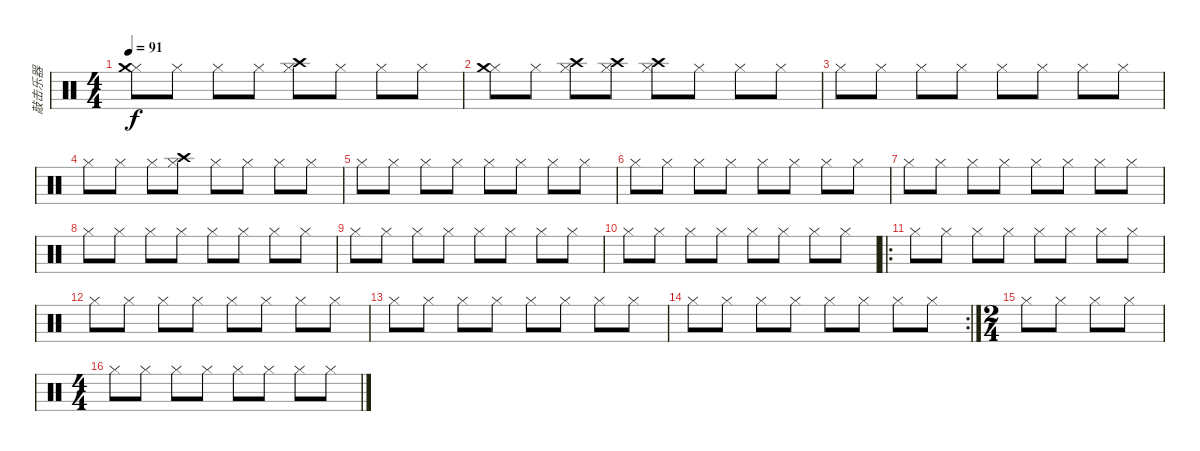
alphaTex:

\track ("敲击乐器" "敲击乐器") {instrument percussion}
\staff {score}
\articulation defaults
\ts (4 4)
\tempo 91
\clef neutral
\ks c
("Hi-Hat (closed)" "Crash medium (hit)").8{dy f} "Hi-Hat (closed)".8 "Hi-Hat (closed)".8 "Hi-Hat (closed)".8 ("Hi-Hat (closed)" "Crash high (hit)").8 "Hi-Hat (closed)".8 "Hi-Hat (closed)".8 "Hi-Hat (closed)".8 |
("Hi-Hat (closed)" "Crash medium (hit)").8 "Hi-Hat (closed)".8 ("Hi-Hat (closed)" "Crash high (hit)").8 ("Hi-Hat (closed)" "Crash high (hit)").8 ("Hi-Hat (closed)" "Crash high (hit)").8 "Hi-Hat (closed)".8 "Hi-Hat (closed)".8 "Hi-Hat (closed)".8 |
"Hi-Hat (closed)".8 "Hi-Hat (closed)".8 "Hi-Hat (closed)".8 "Hi-Hat (closed)".8 "Hi-Hat (closed)".8 "Hi-Hat (closed)".8 "Hi-Hat (closed)".8 "Hi-Hat (closed)".8 |
"Hi-Hat (closed)".8 "Hi-Hat (closed)".8 "Hi-Hat (closed)".8 ("Hi-Hat (closed)" "Crash high (hit)").8 "Hi-Hat (closed)".8 "Hi-Hat (closed)".8 "Hi-Hat (closed)".8 "Hi-Hat (closed)".8 |
"Hi-Hat (closed)".8 "Hi-Hat (closed)".8 "Hi-Hat (closed)".8 "Hi-Hat (closed)".8 "Hi-Hat (closed)".8 "Hi-Hat (closed)".8 "Hi-Hat (closed)".8 "Hi-Hat (closed)".8 |
"Hi-Hat (closed)".8 "Hi-Hat (closed)".8 "Hi-Hat (closed)".8 "Hi-Hat (closed)".8 "Hi-Hat (closed)".8 "Hi-Hat (closed)".8 "Hi-Hat (closed)".8 "Hi-Hat (closed)".8 |
"Hi-Hat (closed)".8 "Hi-Hat (closed)".8 "Hi-Hat (closed)".8 "Hi-Hat (closed)".8 "Hi-Hat (closed)".8 "Hi-Hat (closed)".8 "Hi-Hat (closed)".8 "Hi-Hat (closed)".8 |
"Hi-Hat (closed)".8 "Hi-Hat (closed)".8 "Hi-Hat (closed)".8 "Hi-Hat (closed)".8 "Hi-Hat (closed)".8 "Hi-Hat (closed)".8 "Hi-Hat (closed)".8 "Hi-Hat (closed)".8 |
"Hi-Hat (closed)".8 "Hi-Hat (closed)".8 "Hi-Hat (closed)".8 "Hi-Hat (closed)".8 "Hi-Hat (closed)".8 "Hi-Hat (closed)".8 "Hi-Hat (closed)".8 "Hi-Hat (closed)".8 |
"Hi-Hat (closed)".8 "Hi-Hat (closed)".8 "Hi-Hat (closed)".8 "Hi-Hat (closed)".8 "Hi-Hat (closed)".8 "Hi-Hat (closed)".8 "Hi-Hat (closed)".8 "Hi-Hat (closed)".8 |
\ro "Hi-Hat (closed)".8 "Hi-Hat (closed)".8 "Hi-Hat (closed)".8 "Hi-Hat (closed)".8 "Hi-Hat (closed)".8 "Hi-Hat (closed)".8 "Hi-Hat (closed)".8 "Hi-Hat (closed)".8
|
"Hi-Hat (closed)".8 "Hi-Hat (closed)".8 "Hi-Hat (closed)".8 "Hi-Hat (closed)".8 "Hi-Hat (closed)".8 "Hi-Hat (closed)".8 "Hi-Hat (closed)".8 "Hi-Hat (closed)".8 |
"Hi-Hat (closed)".8 "Hi-Hat (closed)".8 "Hi-Hat (closed)".8 "Hi-Hat (closed)".8 "Hi-Hat (closed)".8 "Hi-Hat (closed)".8 "Hi-Hat (closed)".8 "Hi-Hat (closed)".8 |
\rc 2 "Hi-Hat (closed)".8 "Hi-Hat (closed)".8 "Hi-Hat (closed)".8 "Hi-Hat (closed)".8 "Hi-Hat (closed)".8 "Hi-Hat (closed)".8 "Hi-Hat (closed)".8 "Hi-Hat (closed)".8
|
\ts (2 4)
"Hi-Hat (closed)".8 "Hi-Hat (closed)".8 "Hi-Hat (closed)".8 "Hi-Hat (closed)".8 |
\ts (4 4)
"Hi-Hat (closed)".8 "Hi-Hat (closed)".8 "Hi-Hat (closed)".8 "Hi-Hat (closed)".8 "Hi-Hat (closed)".8 "Hi-Hat (closed)".8 "Hi-Hat (closed)".8 "Hi-Hat (closed)".8
